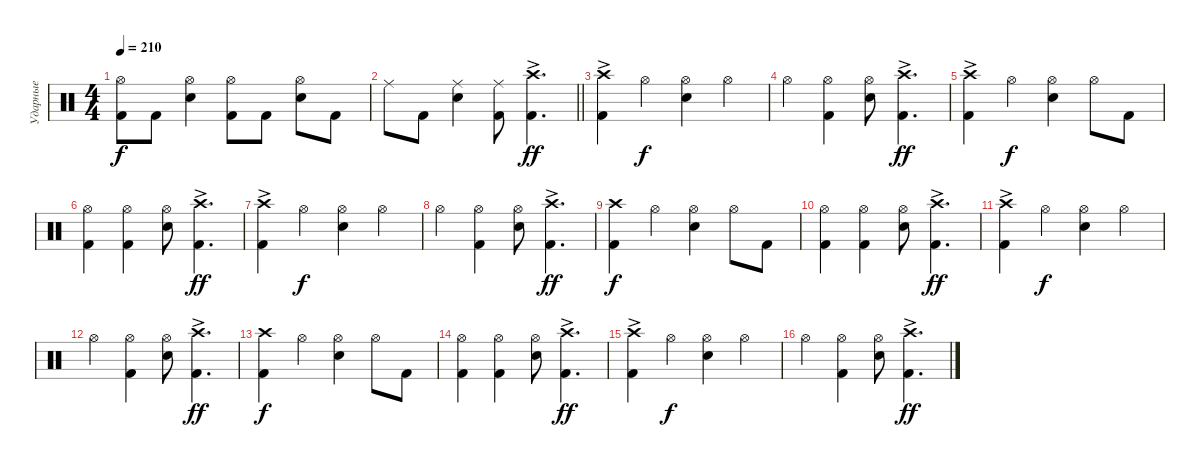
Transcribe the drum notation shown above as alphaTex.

\track ("Ударные" "Ударные") {instrument percussion}
\staff {score}
\articulation defaults
\ts (4 4)
\tempo 210
\clef neutral
\ks c
("Hi-Hat (open)" "Kick (hit) 2").8{dy f} "Kick (hit) 2".8 ("Hi-Hat (open)" "Snare (hit) 2").4 ("Hi-Hat (open)" "Kick (hit) 2").8 "Kick (hit) 2".8 ("Hi-Hat (open)" "Snare (hit) 2").8 "Kick (hit) 2".8 |
\barLineRight lightlight "Ride (middle)".8 "Kick (hit) 2".8
("Ride (middle)" "Snare (hit) 2").4 ("Ride (middle)" "Kick (hit) 2").8 ("Crash high (hit)"{ac} "Kick (hit) 2").4{d dy ff} |
\section ("" "")
("Crash high (hit)"{ac} "Kick (hit) 2").4 "Hi-Hat (open)".4{dy f} ("Hi-Hat (open)" "Snare (hit) 2").4 "Hi-Hat (open)".4 |
"Hi-Hat (open)".4 ("Hi-Hat (open)" "Kick (hit) 2").4 ("Hi-Hat (open)" "Snare (hit) 2").8 ("Crash high (hit)"{ac} "Kick (hit) 2").4{d dy ff} |
("Crash high (hit)"{ac} "Kick (hit) 2").4 "Hi-Hat (open)".4{dy f} ("Hi-Hat (open)" "Snare (hit) 2").4 "Hi-Hat (open)".8 "Kick (hit) 2".8 |
("Hi-Hat (open)" "Kick (hit) 2").4 ("Hi-Hat (open)" "Kick (hit) 2").4 ("Hi-Hat (open)" "Snare (hit) 2").8 ("Crash high (hit)"{ac} "Kick (hit) 2").4{d dy ff} |
("Crash high (hit)"{ac} "Kick (hit) 2").4 "Hi-Hat (open)".4{dy f} ("Hi-Hat (open)" "Snare (hit) 2").4 "Hi-Hat (open)".4 |
"Hi-Hat (open)".4 ("Hi-Hat (open)" "Kick (hit) 2").4 ("Hi-Hat (open)" "Snare (hit) 2").8 ("Crash high (hit)"{ac} "Kick (hit) 2").4{d dy ff} |
("Crash high (hit)" "Kick (hit) 2").4{dy f} "Hi-Hat (open)".4 ("Hi-Hat (open)" "Snare (hit) 2").4 "Hi-Hat (open)".8 "Kick (hit) 2".8 |
("Hi-Hat (open)" "Kick (hit) 2").4 ("Hi-Hat (open)" "Kick (hit) 2").4 ("Hi-Hat (open)" "Snare (hit) 2").8 ("Crash high (hit)"{ac} "Kick (hit) 2").4{d dy ff} |
("Crash high (hit)"{ac} "Kick (hit) 2").4 "Hi-Hat (open)".4{dy f} ("Hi-Hat (open)" "Snare (hit) 2").4 "Hi-Hat (open)".4 |
"Hi-Hat (open)".4 ("Hi-Hat (open)" "Kick (hit) 2").4 ("Hi-Hat (open)" "Snare (hit) 2").8 ("Crash high (hit)"{ac} "Kick (hit) 2").4{d dy ff} |
("Crash high (hit)" "Kick (hit) 2").4{dy f} "Hi-Hat (open)".4 ("Hi-Hat (open)" "Snare (hit) 2").4 "Hi-Hat (open)".8 "Kick (hit) 2".8 |
("Hi-Hat (open)" "Kick (hit) 2").4 ("Hi-Hat (open)" "Kick (hit) 2").4 ("Hi-Hat (open)" "Snare (hit) 2").8 ("Crash high (hit)"{ac} "Kick (hit) 2").4{d dy ff} |
("Crash high (hit)"{ac} "Kick (hit) 2").4 "Hi-Hat (open)".4{dy f} ("Hi-Hat (open)" "Snare (hit) 2").4 "Hi-Hat (open)".4 |
"Hi-Hat (open)".4 ("Hi-Hat (open)" "Kick (hit) 2").4 ("Hi-Hat (open)" "Snare (hit) 2").8 ("Crash high (hit)"{ac} "Kick (hit) 2").4{d dy ff}
